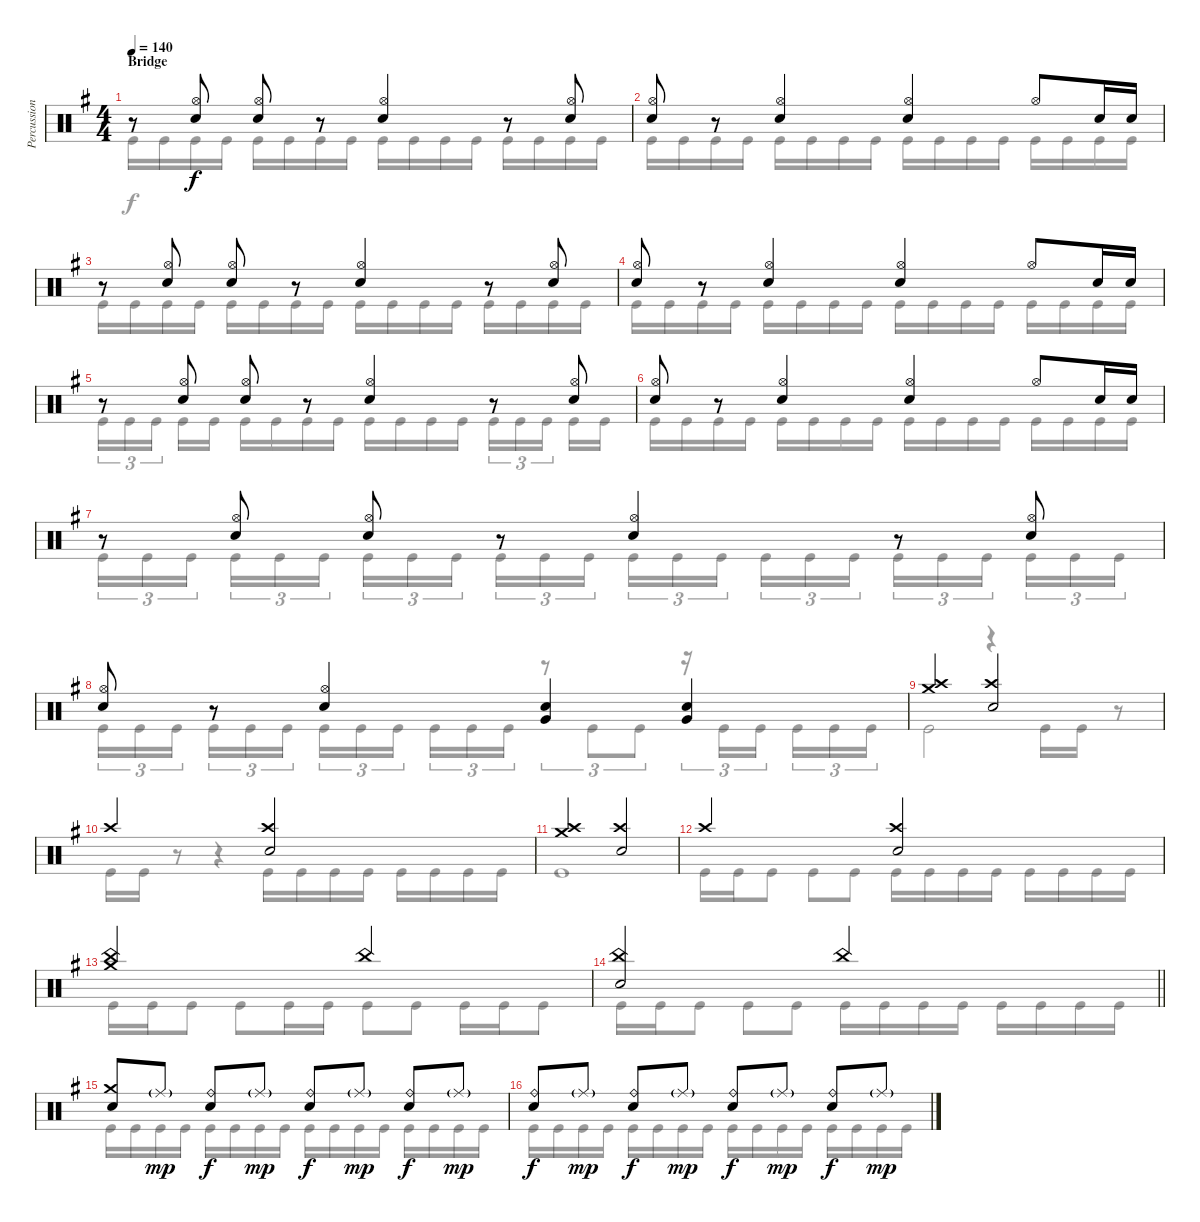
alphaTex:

\track ("Percussion" "Percussion") {instrument percussion}
\staff {score}
\articulation defaults
\voice
\ts (4 4)
\section ("" "Bridge")
\tempo 140
\clef neutral
\ks eminor
r.8{dy f} ("Hi-Hat (open)" "Electric Snare (hit)").8 ("Hi-Hat (open)" "Electric Snare (hit)").8 r.8 ("Hi-Hat (open)" "Electric Snare (hit)").4 r.8 ("Hi-Hat (open)" "Electric Snare (hit)").8 |
("Hi-Hat (open)" "Electric Snare (hit)").8 r.8 ("Hi-Hat (open)" "Electric Snare (hit)").4 ("Hi-Hat (open)" "Electric Snare (hit)").4 "Hi-Hat (open)".8 "Electric Snare (hit)".16 "Electric Snare (hit)".16 |
r.8 ("Hi-Hat (open)" "Electric Snare (hit)").8 ("Hi-Hat (open)" "Electric Snare (hit)").8 r.8 ("Hi-Hat (open)" "Electric Snare (hit)").4 r.8 ("Hi-Hat (open)" "Electric Snare (hit)").8 |
("Hi-Hat (open)" "Electric Snare (hit)").8 r.8 ("Hi-Hat (open)" "Electric Snare (hit)").4 ("Hi-Hat (open)" "Electric Snare (hit)").4 "Hi-Hat (open)".8 "Electric Snare (hit)".16 "Electric Snare (hit)".16 |
r.8 ("Hi-Hat (open)" "Electric Snare (hit)").8 ("Hi-Hat (open)" "Electric Snare (hit)").8 r.8 ("Hi-Hat (open)" "Electric Snare (hit)").4 r.8 ("Hi-Hat (open)" "Electric Snare (hit)").8 |
("Hi-Hat (open)" "Electric Snare (hit)").8 r.8 ("Hi-Hat (open)" "Electric Snare (hit)").4 ("Hi-Hat (open)" "Electric Snare (hit)").4 "Hi-Hat (open)".8 "Electric Snare (hit)".16 "Electric Snare (hit)".16 |
r.8 ("Hi-Hat (open)" "Electric Snare (hit)").8 ("Hi-Hat (open)" "Electric Snare (hit)").8 r.8 ("Hi-Hat (open)" "Electric Snare (hit)").4 r.8 ("Hi-Hat (open)" "Electric Snare (hit)").8 |
("Hi-Hat (open)" "Electric Snare (hit)").8 r.8 ("Hi-Hat (open)" "Electric Snare (hit)").4 ("Very Low Tom (hit)" "Electric Snare (hit)").4 ("Very Low Tom (hit)" "Electric Snare (hit)").4 |
("Crash medium (hit)" "Crash high (hit)").2 ("Crash high (hit)" "Electric Snare (hit)").2 |
"Crash high (hit)".2 ("Crash high (hit)" "Electric Snare (hit)").2 |
("Crash medium (hit)" "Crash high (hit)").2 ("Crash high (hit)" "Electric Snare (hit)").2 |
"Crash high (hit)".2 ("Crash high (hit)" "Electric Snare (hit)").2 |
("China (hit)" "Crash medium (hit)").2 "China (hit)".2 |
\barLineRight lightlight
("China (hit)" "Electric Snare (hit)").2 "China (hit)".2 |
\section ("" "")
("Crash medium (hit)" "Electric Snare (hit)").8 "Ride (middle)"{g}.8{dy mp} ("Ride (bell)" "Electric Snare (hit)").8{dy f} "Ride (middle)"{g}.8{dy mp} ("Ride (bell)" "Electric Snare (hit)").8{dy f} "Ride (middle)"{g}.8{dy mp} ("Ride (bell)" "Electric Snare (hit)").8{dy f} "Ride (middle)"{g}.8{dy mp} |
("Ride (bell)" "Electric Snare (hit)").8{dy f} "Ride (middle)"{g}.8{dy mp} ("Ride (bell)" "Electric Snare (hit)").8{dy f} "Ride (middle)"{g}.8{dy mp} ("Ride (bell)" "Electric Snare (hit)").8{dy f} "Ride (middle)"{g}.8{dy mp} ("Ride (bell)" "Electric Snare (hit)").8{dy f} "Ride (middle)"{g}.8{dy mp}
\voice
\clef neutral
\ottava regular
\simile none
\ks eminor "Kick (hit)".16{dy f} "Kick (hit)".16 "Kick (hit)".16 "Kick (hit)".16 "Kick (hit)".16 "Kick (hit)".16 "Kick (hit)".16 "Kick (hit)".16 "Kick (hit)".16 "Kick (hit)".16 "Kick (hit)".16 "Kick (hit)".16 "Kick (hit)".16 "Kick (hit)".16 "Kick (hit)".16 "Kick (hit)".16
|
"Kick (hit)".16 "Kick (hit)".16 "Kick (hit)".16 "Kick (hit)".16 "Kick (hit)".16 "Kick (hit)".16 "Kick (hit)".16 "Kick (hit)".16 "Kick (hit)".16 "Kick (hit)".16 "Kick (hit)".16 "Kick (hit)".16 "Kick (hit)".16 "Kick (hit)".16 "Kick (hit)".16 "Kick (hit)".16 |
"Kick (hit)".16 "Kick (hit)".16 "Kick (hit)".16 "Kick (hit)".16 "Kick (hit)".16 "Kick (hit)".16 "Kick (hit)".16 "Kick (hit)".16 "Kick (hit)".16 "Kick (hit)".16 "Kick (hit)".16 "Kick (hit)".16 "Kick (hit)".16 "Kick (hit)".16 "Kick (hit)".16 "Kick (hit)".16 |
"Kick (hit)".16 "Kick (hit)".16 "Kick (hit)".16 "Kick (hit)".16 "Kick (hit)".16 "Kick (hit)".16 "Kick (hit)".16 "Kick (hit)".16 "Kick (hit)".16 "Kick (hit)".16 "Kick (hit)".16 "Kick (hit)".16 "Kick (hit)".16 "Kick (hit)".16 "Kick (hit)".16 "Kick (hit)".16 |
"Kick (hit)".16{tu (3 2)} "Kick (hit)".16{tu (3 2)} "Kick (hit)".16{tu (3 2) beam splitsecondary} "Kick (hit)".16 "Kick (hit)".16 "Kick (hit)".16 "Kick (hit)".16 "Kick (hit)".16 "Kick (hit)".16 "Kick (hit)".16 "Kick (hit)".16 "Kick (hit)".16 "Kick (hit)".16 "Kick (hit)".16{tu (3 2)} "Kick (hit)".16{tu (3 2)} "Kick (hit)".16{tu (3 2) beam splitsecondary} "Kick (hit)".16 "Kick (hit)".16 |
"Kick (hit)".16 "Kick (hit)".16 "Kick (hit)".16 "Kick (hit)".16 "Kick (hit)".16 "Kick (hit)".16 "Kick (hit)".16 "Kick (hit)".16 "Kick (hit)".16 "Kick (hit)".16 "Kick (hit)".16 "Kick (hit)".16 "Kick (hit)".16 "Kick (hit)".16 "Kick (hit)".16 "Kick (hit)".16 |
"Kick (hit)".16{tu (3 2)} "Kick (hit)".16{tu (3 2)} "Kick (hit)".16{tu (3 2) beam splitsecondary} "Kick (hit)".16{tu (3 2)} "Kick (hit)".16{tu (3 2)} "Kick (hit)".16{tu (3 2)} "Kick (hit)".16{tu (3 2)} "Kick (hit)".16{tu (3 2)} "Kick (hit)".16{tu (3 2) beam splitsecondary} "Kick (hit)".16{tu (3 2)} "Kick (hit)".16{tu (3 2)} "Kick (hit)".16{tu (3 2)} "Kick (hit)".16{tu (3 2)} "Kick (hit)".16{tu (3 2)} "Kick (hit)".16{tu (3 2) beam splitsecondary} "Kick (hit)".16{tu (3 2)} "Kick (hit)".16{tu (3 2)} "Kick (hit)".16{tu (3 2)} "Kick (hit)".16{tu (3 2)} "Kick (hit)".16{tu (3 2)} "Kick (hit)".16{tu (3 2) beam splitsecondary} "Kick (hit)".16{tu (3 2)} "Kick (hit)".16{tu (3 2)} "Kick (hit)".16{tu (3 2)} |
"Kick (hit)".16{tu (3 2)} "Kick (hit)".16{tu (3 2)} "Kick (hit)".16{tu (3 2) beam splitsecondary} "Kick (hit)".16{tu (3 2)} "Kick (hit)".16{tu (3 2)} "Kick (hit)".16{tu (3 2)} "Kick (hit)".16{tu (3 2)} "Kick (hit)".16{tu (3 2)} "Kick (hit)".16{tu (3 2) beam splitsecondary} "Kick (hit)".16{tu (3 2)} "Kick (hit)".16{tu (3 2)} "Kick (hit)".16{tu (3 2)} r.8{tu (3 2)} "Kick (hit)".8{tu (3 2)} "Kick (hit)".8{tu (3 2)} r.16{tu (3 2)} "Kick (hit)".16{tu (3 2)} "Kick (hit)".16{tu (3 2) beam splitsecondary} "Kick (hit)".16{tu (3 2)} "Kick (hit)".16{tu (3 2)} "Kick (hit)".16{tu (3 2)} |
"Kick (hit)".2 r.4 "Kick (hit)".16 "Kick (hit)".16 r.8 |
"Kick (hit)".16 "Kick (hit)".16 r.8 r.4 "Kick (hit)".16 "Kick (hit)".16 "Kick (hit)".16 "Kick (hit)".16 "Kick (hit)".16 "Kick (hit)".16 "Kick (hit)".16 "Kick (hit)".16 |
"Kick (hit)".1 |
"Kick (hit)".16 "Kick (hit)".16 "Kick (hit)".8 "Kick (hit)".8 "Kick (hit)".8 "Kick (hit)".16 "Kick (hit)".16 "Kick (hit)".16 "Kick (hit)".16 "Kick (hit)".16 "Kick (hit)".16 "Kick (hit)".16 "Kick (hit)".16 |
"Kick (hit)".16 "Kick (hit)".16 "Kick (hit)".8 "Kick (hit)".8 "Kick (hit)".16 "Kick (hit)".16 "Kick (hit)".8 "Kick (hit)".8 "Kick (hit)".16 "Kick (hit)".16 "Kick (hit)".8 |
\barLineRight lightlight "Kick (hit)".16 "Kick (hit)".16 "Kick (hit)".8 "Kick (hit)".8 "Kick (hit)".8 "Kick (hit)".16 "Kick (hit)".16 "Kick (hit)".16 "Kick (hit)".16 "Kick (hit)".16 "Kick (hit)".16 "Kick (hit)".16 "Kick (hit)".16
|
"Kick (hit)".16 "Kick (hit)".16 "Kick (hit)".16 "Kick (hit)".16 "Kick (hit)".16 "Kick (hit)".16 "Kick (hit)".16 "Kick (hit)".16 "Kick (hit)".16 "Kick (hit)".16 "Kick (hit)".16 "Kick (hit)".16 "Kick (hit)".16 "Kick (hit)".16 "Kick (hit)".16 "Kick (hit)".16 |
"Kick (hit)".16 "Kick (hit)".16 "Kick (hit)".16 "Kick (hit)".16 "Kick (hit)".16 "Kick (hit)".16 "Kick (hit)".16 "Kick (hit)".16 "Kick (hit)".16 "Kick (hit)".16 "Kick (hit)".16 "Kick (hit)".16 "Kick (hit)".16 "Kick (hit)".16 "Kick (hit)".16 "Kick (hit)".16
